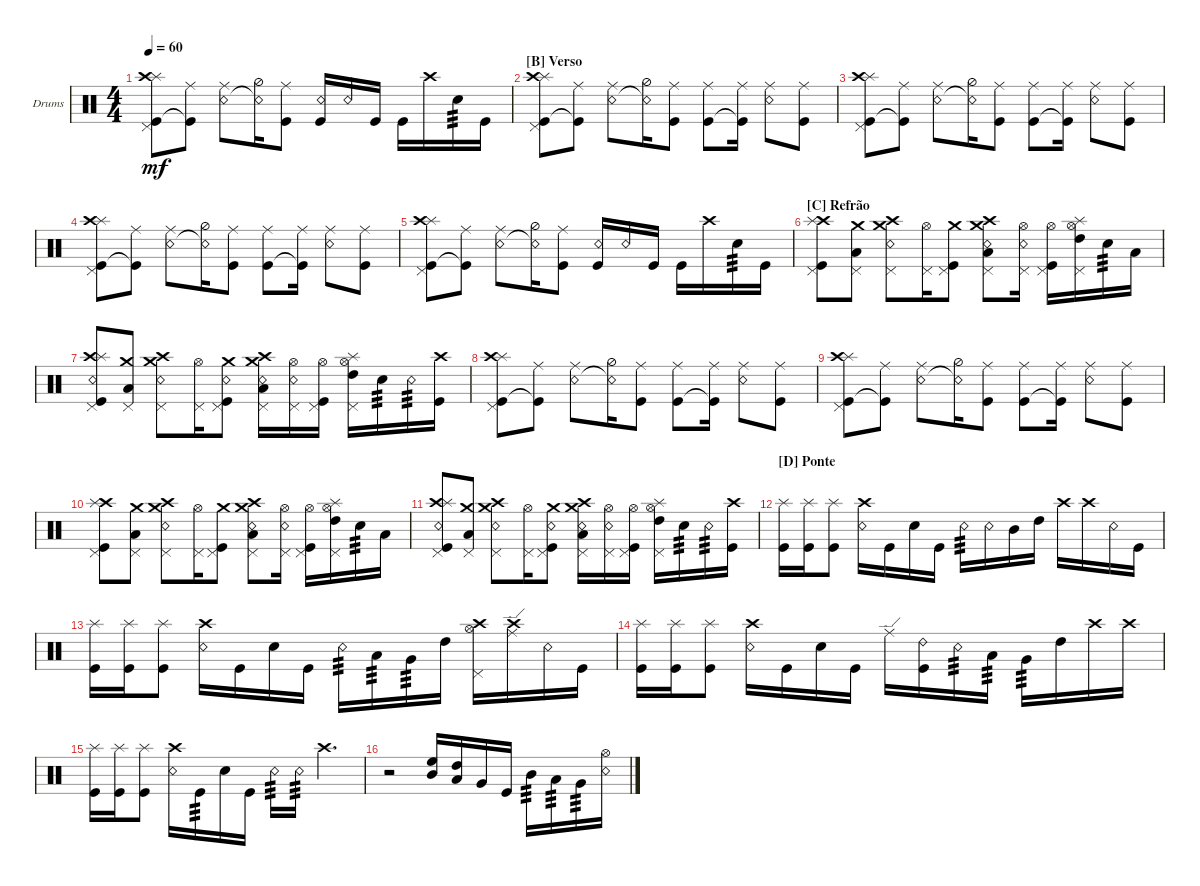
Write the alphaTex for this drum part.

\defaultSystemsLayout 4
\bracketExtendMode groupsimilarinstruments
\firstSystemTrackNameOrientation horizontal
\otherSystemsTrackNameOrientation horizontal
\track ("Drum" "Drums") {multiBarRest instrument percussion}
\staff {score}
\articulation defaults
\ts (4 4)
\tempo 60
\clef neutral
\ks c
("Kick (hit)" "Pedal Hi-Hat (hit)" "Splash (hit)" "Crash high (hit)").8{dy mf} ("Kick (hit)"{t} "Ride (middle)").8 ("Snare (rim shot)" "Ride (middle)").8 ("Snare (rim shot)"{t} "Hi-Hat (half)").16 ("Kick (hit)" "Ride (middle)").8 ("Snare (rim shot)" "Kick (hit)").16 "Snare (rim shot)".16 "Kick (hit)".16 "Kick (hit)".16 "Crash high (hit)".16 "Snare (hit) 2".16{tp 3} "Kick (hit)".16 |
\section ("B" "Verso")
("Kick (hit)" "Pedal Hi-Hat (hit)" "Splash (hit)" "Crash high (hit)").8 ("Kick (hit)"{t} "Ride (middle)").8 ("Snare (rim shot)" "Ride (middle)").8 ("Snare (rim shot)"{t} "Hi-Hat (half)").16 ("Kick (hit)" "Ride (middle)").8 ("Kick (hit)" "Ride (middle)").8 ("Kick (hit)"{t} "Ride (middle)").16 ("Snare (rim shot)" "Ride (middle)").8 ("Kick (hit)" "Ride (middle)").8 |
("Kick (hit)" "Pedal Hi-Hat (hit)" "Splash (hit)" "Crash high (hit)").8 ("Kick (hit)"{t} "Ride (middle)").8 ("Snare (rim shot)" "Ride (middle)").8 ("Snare (rim shot)"{t} "Hi-Hat (half)").16 ("Kick (hit)" "Ride (middle)").8 ("Kick (hit)" "Ride (middle)").8 ("Kick (hit)"{t} "Ride (middle)").16 ("Snare (rim shot)" "Ride (middle)").8 ("Kick (hit)" "Ride (middle)").8 |
("Kick (hit)" "Pedal Hi-Hat (hit)" "Splash (hit)" "Crash high (hit)").8 ("Kick (hit)"{t} "Ride (middle)").8 ("Snare (rim shot)" "Ride (middle)").8 ("Snare (rim shot)"{t} "Hi-Hat (half)").16 ("Kick (hit)" "Ride (middle)").8 ("Kick (hit)" "Ride (middle)").8 ("Kick (hit)"{t} "Ride (middle)").16 ("Snare (rim shot)" "Ride (middle)").8 ("Kick (hit)" "Ride (middle)").8 |
("Kick (hit)" "Pedal Hi-Hat (hit)" "Splash (hit)" "Crash high (hit)").8 ("Kick (hit)"{t} "Ride (middle)").8 ("Snare (rim shot)" "Ride (middle)").8 ("Snare (rim shot)"{t} "Hi-Hat (half)").16 ("Kick (hit)" "Ride (middle)").8 ("Snare (rim shot)" "Kick (hit)").16 "Snare (rim shot)".16 "Kick (hit)".16 "Kick (hit)".16 "Crash high (hit)".16 "Snare (hit) 2".16{tp 3} "Kick (hit)".16 |
\section ("C" "Refrão")
("Crash high (hit)" "Kick (hit)" "Splash (hit)" "Pedal Hi-Hat (hit)").8 ("Crash medium (hit)" "Low Tom (hit)" "Pedal Hi-Hat (hit)").8 ("Snare (rim shot)" "Pedal Hi-Hat (hit)" "Crash medium (hit)" "Crash high (hit)").8 ("Pedal Hi-Hat (hit)" "Hi-Hat (open)").16 ("Kick (hit)" "Pedal Hi-Hat (hit)" "Crash medium (hit)").8 ("Snare (rim shot)" "Crash medium (hit)" "Crash high (hit)" "Pedal Hi-Hat (hit)" "Low Tom (hit)").8 ("Snare (rim shot)" "Hi-Hat (open)" "Pedal Hi-Hat (hit)").16 ("Hi-Hat (open)" "Kick (hit)" "Pedal Hi-Hat (hit)").16 ("Splash (hit)" "Pedal Hi-Hat (hit)" "Hi-Hat (open)" "High Tom (hit)").16 "Snare (hit) 2".16{tp 3} "Low Tom (hit)".16 |
("Crash high (hit)" "Kick (hit)" "Splash (hit)" "Pedal Hi-Hat (hit)" "Snare (rim shot)").8 ("Crash medium (hit)" "Low Tom (hit)" "Pedal Hi-Hat (hit)").8 ("Snare (rim shot)" "Pedal Hi-Hat (hit)" "Crash medium (hit)" "Crash high (hit)").8 ("Pedal Hi-Hat (hit)" "Hi-Hat (open)").16 ("Kick (hit)" "Pedal Hi-Hat (hit)" "Crash medium (hit)" "Snare (rim shot)").8 ("Snare (rim shot)" "Crash medium (hit)" "Crash high (hit)" "Pedal Hi-Hat (hit)" "Low Tom (hit)").16 ("Snare (rim shot)" "Hi-Hat (open)" "Pedal Hi-Hat (hit)").16 ("Hi-Hat (open)" "Kick (hit)" "Pedal Hi-Hat (hit)").16 ("Splash (hit)" "Pedal Hi-Hat (hit)" "Hi-Hat (open)" "High Tom (hit)").16 "Snare (hit) 2".16{tp 3} "Snare (rim shot)".16{tp 3} ("Crash high (hit)" "Kick (hit)").16 |
("Kick (hit)" "Pedal Hi-Hat (hit)" "Splash (hit)" "Crash high (hit)").8 ("Kick (hit)"{t} "Ride (middle)").8 ("Snare (rim shot)" "Ride (middle)").8 ("Snare (rim shot)"{t} "Hi-Hat (half)").16 ("Kick (hit)" "Ride (middle)").8 ("Kick (hit)" "Ride (middle)").8 ("Kick (hit)"{t} "Ride (middle)").16 ("Snare (rim shot)" "Ride (middle)").8 ("Kick (hit)" "Ride (middle)").8 |
("Kick (hit)" "Pedal Hi-Hat (hit)" "Splash (hit)" "Crash high (hit)").8 ("Kick (hit)"{t} "Ride (middle)").8 ("Snare (rim shot)" "Ride (middle)").8 ("Snare (rim shot)"{t} "Hi-Hat (half)").16 ("Kick (hit)" "Ride (middle)").8 ("Kick (hit)" "Ride (middle)").8 ("Kick (hit)"{t} "Ride (middle)").16 ("Snare (rim shot)" "Ride (middle)").8 ("Kick (hit)" "Ride (middle)").8 |
("Crash high (hit)" "Kick (hit)" "Splash (hit)" "Pedal Hi-Hat (hit)").8 ("Crash medium (hit)" "Low Tom (hit)" "Pedal Hi-Hat (hit)").8 ("Snare (rim shot)" "Pedal Hi-Hat (hit)" "Crash medium (hit)" "Crash high (hit)").8 ("Pedal Hi-Hat (hit)" "Hi-Hat (open)").16 ("Kick (hit)" "Pedal Hi-Hat (hit)" "Crash medium (hit)").8 ("Snare (rim shot)" "Crash medium (hit)" "Crash high (hit)" "Pedal Hi-Hat (hit)" "Low Tom (hit)").8 ("Snare (rim shot)" "Hi-Hat (open)" "Pedal Hi-Hat (hit)").16 ("Hi-Hat (open)" "Kick (hit)" "Pedal Hi-Hat (hit)").16 ("Splash (hit)" "Pedal Hi-Hat (hit)" "Hi-Hat (open)" "High Tom (hit)").16 "Snare (hit) 2".16{tp 3} "Low Tom (hit)".16 |
("Crash high (hit)" "Kick (hit)" "Splash (hit)" "Pedal Hi-Hat (hit)" "Snare (rim shot)").8 ("Crash medium (hit)" "Low Tom (hit)" "Pedal Hi-Hat (hit)").8 ("Snare (rim shot)" "Pedal Hi-Hat (hit)" "Crash medium (hit)" "Crash high (hit)").8 ("Pedal Hi-Hat (hit)" "Hi-Hat (open)").16 ("Kick (hit)" "Pedal Hi-Hat (hit)" "Crash medium (hit)" "Snare (rim shot)").8 ("Snare (rim shot)" "Crash medium (hit)" "Crash high (hit)" "Pedal Hi-Hat (hit)" "Low Tom (hit)").16 ("Snare (rim shot)" "Hi-Hat (open)" "Pedal Hi-Hat (hit)").16 ("Hi-Hat (open)" "Kick (hit)" "Pedal Hi-Hat (hit)").16 ("Splash (hit)" "Pedal Hi-Hat (hit)" "Hi-Hat (open)" "High Tom (hit)").16 "Snare (hit) 2".16{tp 3} "Snare (rim shot)".16{tp 3} ("Crash high (hit)" "Kick (hit)").16 |
\section ("D" "Ponte")
("Kick (hit)" "Splash (hit)").16 ("Kick (hit)" "Splash (hit)").16 ("Kick (hit)" "Splash (hit)").8 ("Snare (rim shot)" "Crash high (hit)").16 "Kick (hit)".16 "Snare (hit) 2".16 "Kick (hit)".16 "Snare (rim shot)".16{tp 3} "Snare (rim shot)".16 "Mid Tom (hit)".16 "High Tom (hit)".16 "Crash high (hit)".16 "Crash high (hit)".16 "Snare (rim shot)".16 "Kick (hit)".16 |
("Kick (hit)" "Splash (hit)").16 ("Kick (hit)" "Splash (hit)").16 ("Kick (hit)" "Splash (hit)").8 ("Snare (rim shot)" "Crash high (hit)").16 "Kick (hit)".16 "Snare (hit) 2".16 "Kick (hit)".16 "Snare (rim shot)".16{tp 3} "Low Tom (hit)".16{tp 3} "Very Low Tom (hit)".16{tp 3} "High Tom (hit)".16 ("Crash high (hit)" "Hi-Hat (open)" "Pedal Hi-Hat (hit)").16 ("Crash high (hit)" "Ride (edge)").16 "Snare (rim shot)".16 "Kick (hit)".16 |
("Kick (hit)" "Splash (hit)").16 ("Kick (hit)" "Splash (hit)").16 ("Kick (hit)" "Splash (hit)").8 ("Snare (rim shot)" "Crash high (hit)").16 "Kick (hit)".16 "Snare (hit) 2".16 "Kick (hit)".16 "Ride (edge)".16 ("Ride (bell) 2" "Kick (hit)").16 "Snare (rim shot)".16{tp 3} "Low Tom (hit)".16{tp 3} "Very Low Tom (hit)".16{tp 3} "High Tom (hit)".16 "Crash high (hit)".16 "Crash high (hit)".16 |
("Kick (hit)" "Splash (hit)").16 ("Kick (hit)" "Splash (hit)").16 ("Kick (hit)" "Splash (hit)").8 ("Snare (rim shot)" "Crash high (hit)").16 "Kick (hit)".16{tp 3} "Snare (hit) 2".16 "Kick (hit)".16 "Snare (rim shot)".16{tp 3} "Snare (rim shot)".16{tp 3} "Crash high (hit)".4{d} |
r.2 ("High Floor Tom (hit)" "Mid Tom (hit)").16 ("High Tom (hit)" "Low Tom (hit)").16 "Very Low Tom (hit)".16 "Kick (hit)".16 "Mid Tom (hit)".16{tp 3} "Low Tom (hit)".16{tp 3} "Very Low Tom (hit)".16{tp 3} ("Snare (rim shot)" "Hi-Hat (open)").16
